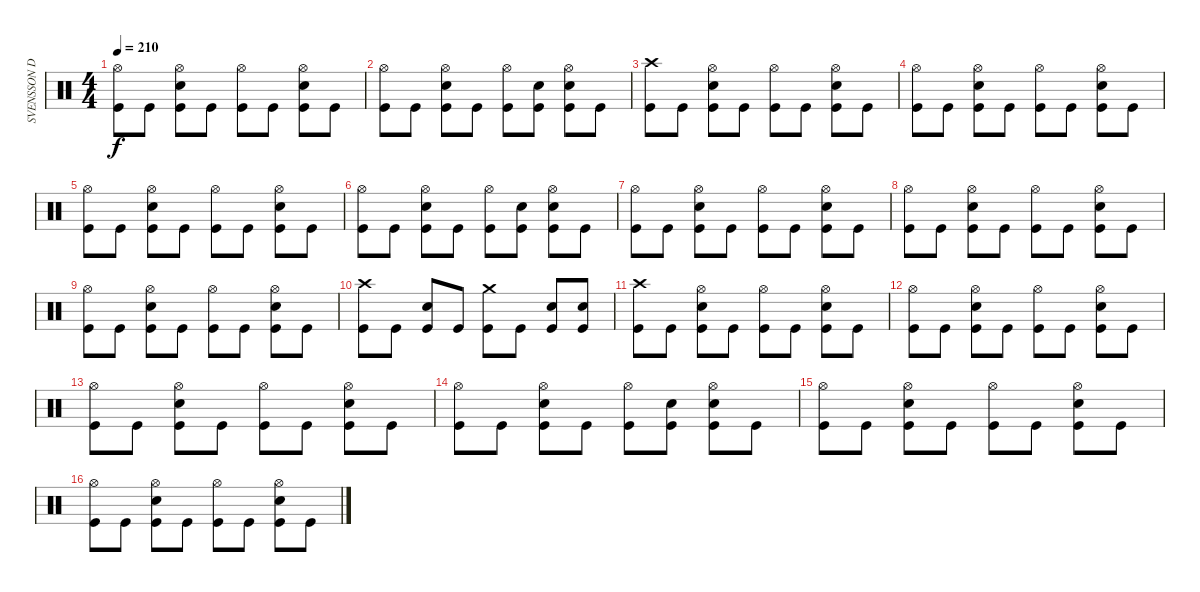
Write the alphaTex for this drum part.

\track ("SVENSSON DRUMS" "SVENSSON D") {instrument percussion}
\staff {score}
\articulation defaults
\ts (4 4)
\tempo 210
\clef neutral
\ks c
("Hi-Hat (open)" "Kick (hit)").8{dy f} "Kick (hit)".8 ("Hi-Hat (open)" "Electric Snare (hit)" "Kick (hit)").8 "Kick (hit)".8 ("Hi-Hat (open)" "Kick (hit)").8 "Kick (hit)".8 ("Hi-Hat (open)" "Electric Snare (hit)" "Kick (hit)").8 "Kick (hit)".8 |
("Hi-Hat (open)" "Kick (hit)").8 "Kick (hit)".8 ("Hi-Hat (open)" "Electric Snare (hit)" "Kick (hit)").8 "Kick (hit)".8 ("Hi-Hat (open)" "Kick (hit)").8 ("Electric Snare (hit)" "Kick (hit)").8 ("Hi-Hat (open)" "Electric Snare (hit)" "Kick (hit)").8 "Kick (hit)".8 |
("Crash high (hit)" "Kick (hit)").8 "Kick (hit)".8 ("Hi-Hat (open)" "Electric Snare (hit)" "Kick (hit)").8 "Kick (hit)".8 ("Hi-Hat (open)" "Kick (hit)").8 "Kick (hit)".8 ("Hi-Hat (open)" "Electric Snare (hit)" "Kick (hit)").8 "Kick (hit)".8 |
("Hi-Hat (open)" "Kick (hit)").8 "Kick (hit)".8 ("Hi-Hat (open)" "Electric Snare (hit)" "Kick (hit)").8 "Kick (hit)".8 ("Hi-Hat (open)" "Kick (hit)").8 "Kick (hit)".8 ("Hi-Hat (open)" "Electric Snare (hit)" "Kick (hit)").8 "Kick (hit)".8 |
("Hi-Hat (open)" "Kick (hit)").8 "Kick (hit)".8 ("Hi-Hat (open)" "Electric Snare (hit)" "Kick (hit)").8 "Kick (hit)".8 ("Hi-Hat (open)" "Kick (hit)").8 "Kick (hit)".8 ("Hi-Hat (open)" "Electric Snare (hit)" "Kick (hit)").8 "Kick (hit)".8 |
("Hi-Hat (open)" "Kick (hit)").8 "Kick (hit)".8 ("Hi-Hat (open)" "Electric Snare (hit)" "Kick (hit)").8 "Kick (hit)".8 ("Hi-Hat (open)" "Kick (hit)").8 ("Electric Snare (hit)" "Kick (hit)").8 ("Hi-Hat (open)" "Electric Snare (hit)" "Kick (hit)").8 "Kick (hit)".8 |
("Hi-Hat (open)" "Kick (hit)").8 "Kick (hit)".8 ("Hi-Hat (open)" "Electric Snare (hit)" "Kick (hit)").8 "Kick (hit)".8 ("Hi-Hat (open)" "Kick (hit)").8 "Kick (hit)".8 ("Hi-Hat (open)" "Electric Snare (hit)" "Kick (hit)").8 "Kick (hit)".8 |
("Hi-Hat (open)" "Kick (hit)").8 "Kick (hit)".8 ("Hi-Hat (open)" "Electric Snare (hit)" "Kick (hit)").8 "Kick (hit)".8 ("Hi-Hat (open)" "Kick (hit)").8 "Kick (hit)".8 ("Hi-Hat (open)" "Electric Snare (hit)" "Kick (hit)").8 "Kick (hit)".8 |
("Hi-Hat (open)" "Kick (hit)").8 "Kick (hit)".8 ("Hi-Hat (open)" "Electric Snare (hit)" "Kick (hit)").8 "Kick (hit)".8 ("Hi-Hat (open)" "Kick (hit)").8 "Kick (hit)".8 ("Hi-Hat (open)" "Electric Snare (hit)" "Kick (hit)").8 "Kick (hit)".8 |
("Crash high (hit)" "Kick (hit)").8 "Kick (hit)".8 ("Electric Snare (hit)" "Kick (hit)").8 "Kick (hit)".8 ("Crash medium (hit)" "Kick (hit)").8 "Kick (hit)".8 ("Electric Snare (hit)" "Kick (hit)").8 ("Electric Snare (hit)" "Kick (hit)").8 |
("Crash high (hit)" "Kick (hit)").8 "Kick (hit)".8 ("Hi-Hat (open)" "Electric Snare (hit)" "Kick (hit)").8 "Kick (hit)".8 ("Hi-Hat (open)" "Kick (hit)").8 "Kick (hit)".8 ("Hi-Hat (open)" "Electric Snare (hit)" "Kick (hit)").8 "Kick (hit)".8 |
("Hi-Hat (open)" "Kick (hit)").8 "Kick (hit)".8 ("Hi-Hat (open)" "Electric Snare (hit)" "Kick (hit)").8 "Kick (hit)".8 ("Hi-Hat (open)" "Kick (hit)").8 "Kick (hit)".8 ("Hi-Hat (open)" "Electric Snare (hit)" "Kick (hit)").8 "Kick (hit)".8 |
("Hi-Hat (open)" "Kick (hit)").8 "Kick (hit)".8 ("Hi-Hat (open)" "Electric Snare (hit)" "Kick (hit)").8 "Kick (hit)".8 ("Hi-Hat (open)" "Kick (hit)").8 "Kick (hit)".8 ("Hi-Hat (open)" "Electric Snare (hit)" "Kick (hit)").8 "Kick (hit)".8 |
("Hi-Hat (open)" "Kick (hit)").8 "Kick (hit)".8 ("Hi-Hat (open)" "Electric Snare (hit)" "Kick (hit)").8 "Kick (hit)".8 ("Hi-Hat (open)" "Kick (hit)").8 ("Electric Snare (hit)" "Kick (hit)").8 ("Hi-Hat (open)" "Electric Snare (hit)" "Kick (hit)").8 "Kick (hit)".8 |
("Hi-Hat (open)" "Kick (hit)").8 "Kick (hit)".8 ("Hi-Hat (open)" "Electric Snare (hit)" "Kick (hit)").8 "Kick (hit)".8 ("Hi-Hat (open)" "Kick (hit)").8 "Kick (hit)".8 ("Hi-Hat (open)" "Electric Snare (hit)" "Kick (hit)").8 "Kick (hit)".8 |
("Hi-Hat (open)" "Kick (hit)").8 "Kick (hit)".8 ("Hi-Hat (open)" "Electric Snare (hit)" "Kick (hit)").8 "Kick (hit)".8 ("Hi-Hat (open)" "Kick (hit)").8 "Kick (hit)".8 ("Hi-Hat (open)" "Electric Snare (hit)" "Kick (hit)").8 "Kick (hit)".8
